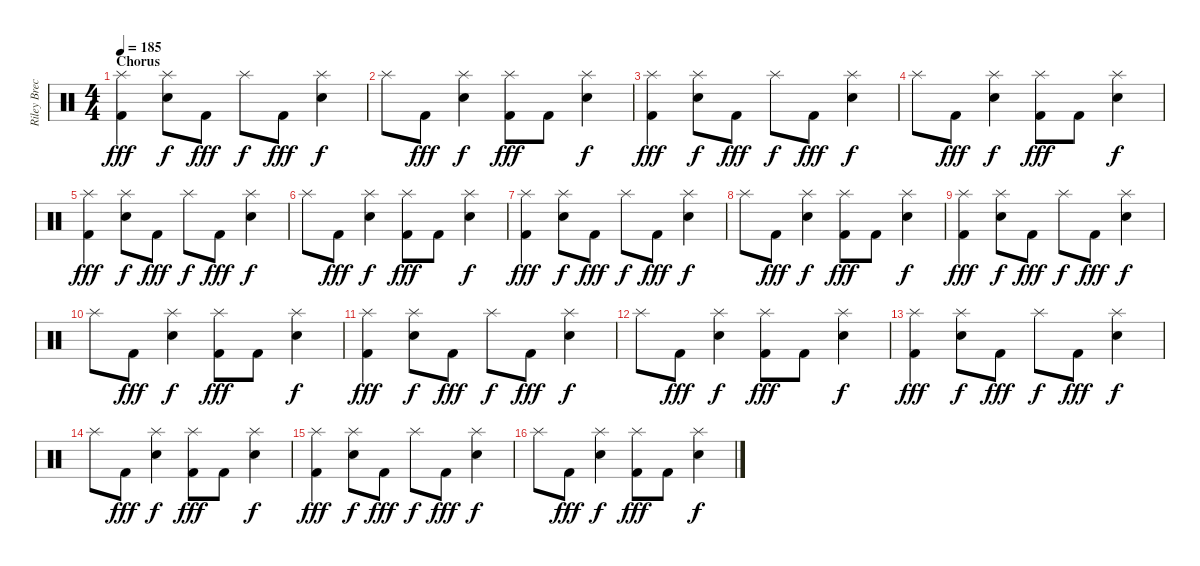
\track ("Riley Breckenridge (Drums)" "Riley Brec") {instrument percussion}
\staff {score}
\articulation defaults
\ts (4 4)
\section ("" "Chorus")
\tempo 185
\clef neutral
\ks c
("Splash (hit)" "Kick (hit) 2").4{dy fff} ("Splash (hit)" "Electric Snare (hit)").8{dy f} "Kick (hit) 2".8{dy fff} "Splash (hit)".8{dy f} "Kick (hit) 2".8{dy fff} ("Splash (hit)" "Electric Snare (hit)").4{dy f} |
"Splash (hit)".8 "Kick (hit) 2".8{dy fff} ("Splash (hit)" "Electric Snare (hit)").4{dy f} ("Splash (hit)" "Kick (hit) 2").8{dy fff} "Kick (hit) 2".8 ("Splash (hit)" "Electric Snare (hit)").4{dy f} |
("Splash (hit)" "Kick (hit) 2").4{dy fff} ("Splash (hit)" "Electric Snare (hit)").8{dy f} "Kick (hit) 2".8{dy fff} "Splash (hit)".8{dy f} "Kick (hit) 2".8{dy fff} ("Splash (hit)" "Electric Snare (hit)").4{dy f} |
"Splash (hit)".8 "Kick (hit) 2".8{dy fff} ("Splash (hit)" "Electric Snare (hit)").4{dy f} ("Splash (hit)" "Kick (hit) 2").8{dy fff} "Kick (hit) 2".8 ("Splash (hit)" "Electric Snare (hit)").4{dy f} |
("Splash (hit)" "Kick (hit) 2").4{dy fff} ("Splash (hit)" "Electric Snare (hit)").8{dy f} "Kick (hit) 2".8{dy fff} "Splash (hit)".8{dy f} "Kick (hit) 2".8{dy fff} ("Splash (hit)" "Electric Snare (hit)").4{dy f} |
"Splash (hit)".8 "Kick (hit) 2".8{dy fff} ("Splash (hit)" "Electric Snare (hit)").4{dy f} ("Splash (hit)" "Kick (hit) 2").8{dy fff} "Kick (hit) 2".8 ("Splash (hit)" "Electric Snare (hit)").4{dy f} |
("Splash (hit)" "Kick (hit) 2").4{dy fff} ("Splash (hit)" "Electric Snare (hit)").8{dy f} "Kick (hit) 2".8{dy fff} "Splash (hit)".8{dy f} "Kick (hit) 2".8{dy fff} ("Splash (hit)" "Electric Snare (hit)").4{dy f} |
"Splash (hit)".8 "Kick (hit) 2".8{dy fff} ("Splash (hit)" "Electric Snare (hit)").4{dy f} ("Splash (hit)" "Kick (hit) 2").8{dy fff} "Kick (hit) 2".8 ("Splash (hit)" "Electric Snare (hit)").4{dy f} |
("Splash (hit)" "Kick (hit) 2").4{dy fff} ("Splash (hit)" "Electric Snare (hit)").8{dy f} "Kick (hit) 2".8{dy fff} "Splash (hit)".8{dy f} "Kick (hit) 2".8{dy fff} ("Splash (hit)" "Electric Snare (hit)").4{dy f} |
"Splash (hit)".8 "Kick (hit) 2".8{dy fff} ("Splash (hit)" "Electric Snare (hit)").4{dy f} ("Splash (hit)" "Kick (hit) 2").8{dy fff} "Kick (hit) 2".8 ("Splash (hit)" "Electric Snare (hit)").4{dy f} |
("Splash (hit)" "Kick (hit) 2").4{dy fff} ("Splash (hit)" "Electric Snare (hit)").8{dy f} "Kick (hit) 2".8{dy fff} "Splash (hit)".8{dy f} "Kick (hit) 2".8{dy fff} ("Splash (hit)" "Electric Snare (hit)").4{dy f} |
"Splash (hit)".8 "Kick (hit) 2".8{dy fff} ("Splash (hit)" "Electric Snare (hit)").4{dy f} ("Splash (hit)" "Kick (hit) 2").8{dy fff} "Kick (hit) 2".8 ("Splash (hit)" "Electric Snare (hit)").4{dy f} |
("Splash (hit)" "Kick (hit) 2").4{dy fff} ("Splash (hit)" "Electric Snare (hit)").8{dy f} "Kick (hit) 2".8{dy fff} "Splash (hit)".8{dy f} "Kick (hit) 2".8{dy fff} ("Splash (hit)" "Electric Snare (hit)").4{dy f} |
"Splash (hit)".8 "Kick (hit) 2".8{dy fff} ("Splash (hit)" "Electric Snare (hit)").4{dy f} ("Splash (hit)" "Kick (hit) 2").8{dy fff} "Kick (hit) 2".8 ("Splash (hit)" "Electric Snare (hit)").4{dy f} |
("Splash (hit)" "Kick (hit) 2").4{dy fff} ("Splash (hit)" "Electric Snare (hit)").8{dy f} "Kick (hit) 2".8{dy fff} "Splash (hit)".8{dy f} "Kick (hit) 2".8{dy fff} ("Splash (hit)" "Electric Snare (hit)").4{dy f} |
"Splash (hit)".8 "Kick (hit) 2".8{dy fff} ("Splash (hit)" "Electric Snare (hit)").4{dy f} ("Splash (hit)" "Kick (hit) 2").8{dy fff} "Kick (hit) 2".8 ("Splash (hit)" "Electric Snare (hit)").4{dy f}
